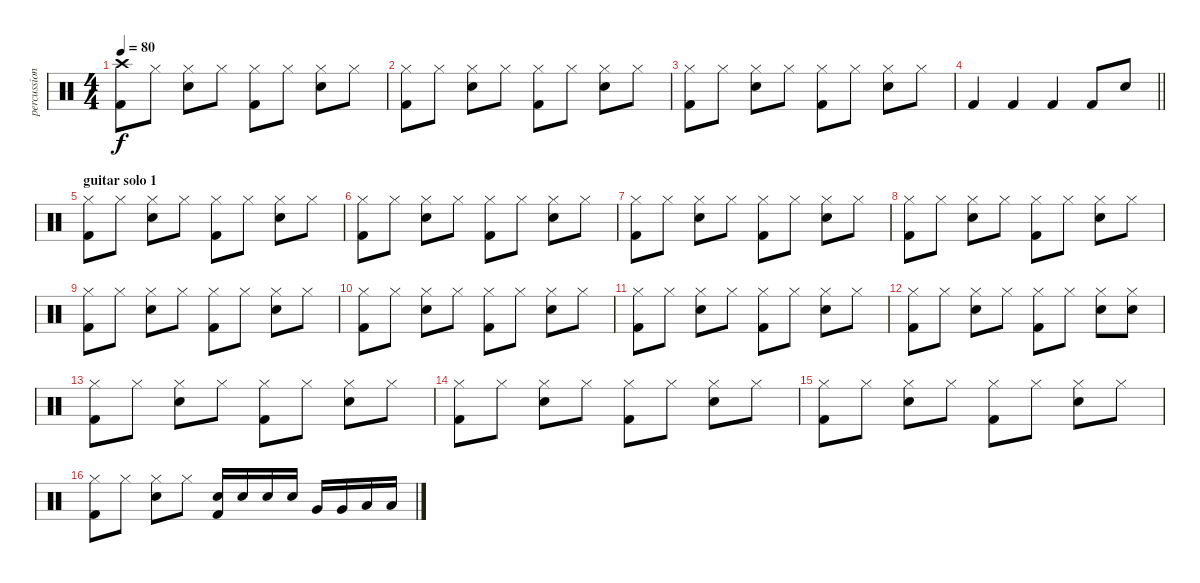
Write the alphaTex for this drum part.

\track ("percussion" "percussion") {instrument percussion}
\staff {score}
\articulation defaults
\ts (4 4)
\tempo 80
\clef neutral
\ks c
("Crash high (hit)" "Kick (hit) 2").8{dy f} "Hi-Hat (closed)".8 ("Snare (hit) 2" "Hi-Hat (closed)").8 "Hi-Hat (closed)".8 ("Hi-Hat (closed)" "Kick (hit) 2").8 "Hi-Hat (closed)".8 ("Snare (hit) 2" "Hi-Hat (closed)").8 "Hi-Hat (closed)".8 |
("Hi-Hat (closed)" "Kick (hit) 2").8 "Hi-Hat (closed)".8 ("Snare (hit) 2" "Hi-Hat (closed)").8 "Hi-Hat (closed)".8 ("Hi-Hat (closed)" "Kick (hit) 2").8 "Hi-Hat (closed)".8 ("Snare (hit) 2" "Hi-Hat (closed)").8 "Hi-Hat (closed)".8 |
("Hi-Hat (closed)" "Kick (hit) 2").8 "Hi-Hat (closed)".8 ("Snare (hit) 2" "Hi-Hat (closed)").8 "Hi-Hat (closed)".8 ("Hi-Hat (closed)" "Kick (hit) 2").8 "Hi-Hat (closed)".8 ("Snare (hit) 2" "Hi-Hat (closed)").8 "Hi-Hat (closed)".8 |
\barLineRight lightlight "Kick (hit) 2".4 "Kick (hit) 2".4 "Kick (hit) 2".4 "Kick (hit) 2".8 "Snare (hit) 2".8
|
\section ("" "guitar solo 1")
("Hi-Hat (closed)" "Kick (hit) 2").8 "Hi-Hat (closed)".8 ("Snare (hit) 2" "Hi-Hat (closed)").8 "Hi-Hat (closed)".8 ("Hi-Hat (closed)" "Kick (hit) 2").8 "Hi-Hat (closed)".8 ("Snare (hit) 2" "Hi-Hat (closed)").8 "Hi-Hat (closed)".8 |
("Hi-Hat (closed)" "Kick (hit) 2").8 "Hi-Hat (closed)".8 ("Snare (hit) 2" "Hi-Hat (closed)").8 "Hi-Hat (closed)".8 ("Hi-Hat (closed)" "Kick (hit) 2").8 "Hi-Hat (closed)".8 ("Snare (hit) 2" "Hi-Hat (closed)").8 "Hi-Hat (closed)".8 |
("Hi-Hat (closed)" "Kick (hit) 2").8 "Hi-Hat (closed)".8 ("Snare (hit) 2" "Hi-Hat (closed)").8 "Hi-Hat (closed)".8 ("Hi-Hat (closed)" "Kick (hit) 2").8 "Hi-Hat (closed)".8 ("Snare (hit) 2" "Hi-Hat (closed)").8 "Hi-Hat (closed)".8 |
("Hi-Hat (closed)" "Kick (hit) 2").8 "Hi-Hat (closed)".8 ("Snare (hit) 2" "Hi-Hat (closed)").8 "Hi-Hat (closed)".8 ("Hi-Hat (closed)" "Kick (hit) 2").8 "Hi-Hat (closed)".8 ("Snare (hit) 2" "Hi-Hat (closed)").8 "Hi-Hat (closed)".8 |
("Hi-Hat (closed)" "Kick (hit) 2").8 "Hi-Hat (closed)".8 ("Snare (hit) 2" "Hi-Hat (closed)").8 "Hi-Hat (closed)".8 ("Hi-Hat (closed)" "Kick (hit) 2").8 "Hi-Hat (closed)".8 ("Snare (hit) 2" "Hi-Hat (closed)").8 "Hi-Hat (closed)".8 |
("Hi-Hat (closed)" "Kick (hit) 2").8 "Hi-Hat (closed)".8 ("Snare (hit) 2" "Hi-Hat (closed)").8 "Hi-Hat (closed)".8 ("Hi-Hat (closed)" "Kick (hit) 2").8 "Hi-Hat (closed)".8 ("Snare (hit) 2" "Hi-Hat (closed)").8 "Hi-Hat (closed)".8 |
("Hi-Hat (closed)" "Kick (hit) 2").8 "Hi-Hat (closed)".8 ("Snare (hit) 2" "Hi-Hat (closed)").8 "Hi-Hat (closed)".8 ("Hi-Hat (closed)" "Kick (hit) 2").8 "Hi-Hat (closed)".8 ("Snare (hit) 2" "Hi-Hat (closed)").8 "Hi-Hat (closed)".8 |
("Hi-Hat (closed)" "Kick (hit) 2").8 "Hi-Hat (closed)".8 ("Snare (hit) 2" "Hi-Hat (closed)").8 "Hi-Hat (closed)".8 ("Hi-Hat (closed)" "Kick (hit) 2").8 "Hi-Hat (closed)".8 ("Snare (hit) 2" "Hi-Hat (closed)").8 ("Snare (hit) 2" "Hi-Hat (closed)").8 |
("Hi-Hat (closed)" "Kick (hit) 2").8 "Hi-Hat (closed)".8 ("Snare (hit) 2" "Hi-Hat (closed)").8 "Hi-Hat (closed)".8 ("Hi-Hat (closed)" "Kick (hit) 2").8 "Hi-Hat (closed)".8 ("Snare (hit) 2" "Hi-Hat (closed)").8 "Hi-Hat (closed)".8 |
("Hi-Hat (closed)" "Kick (hit) 2").8 "Hi-Hat (closed)".8 ("Snare (hit) 2" "Hi-Hat (closed)").8 "Hi-Hat (closed)".8 ("Hi-Hat (closed)" "Kick (hit) 2").8 "Hi-Hat (closed)".8 ("Snare (hit) 2" "Hi-Hat (closed)").8 "Hi-Hat (closed)".8 |
("Hi-Hat (closed)" "Kick (hit) 2").8 "Hi-Hat (closed)".8 ("Snare (hit) 2" "Hi-Hat (closed)").8 "Hi-Hat (closed)".8 ("Hi-Hat (closed)" "Kick (hit) 2").8 "Hi-Hat (closed)".8 ("Snare (hit) 2" "Hi-Hat (closed)").8 "Hi-Hat (closed)".8 |
("Hi-Hat (closed)" "Kick (hit) 2").8 "Hi-Hat (closed)".8 ("Snare (hit) 2" "Hi-Hat (closed)").8 "Hi-Hat (closed)".8 ("Snare (hit) 2" "Kick (hit) 2").16 "Snare (hit) 2".16 "Snare (hit) 2".16 "Snare (hit) 2".16 "Very Low Tom (hit)".16 "Very Low Tom (hit)".16 "Low Floor Tom (hit)".16 "Low Floor Tom (hit)".16
